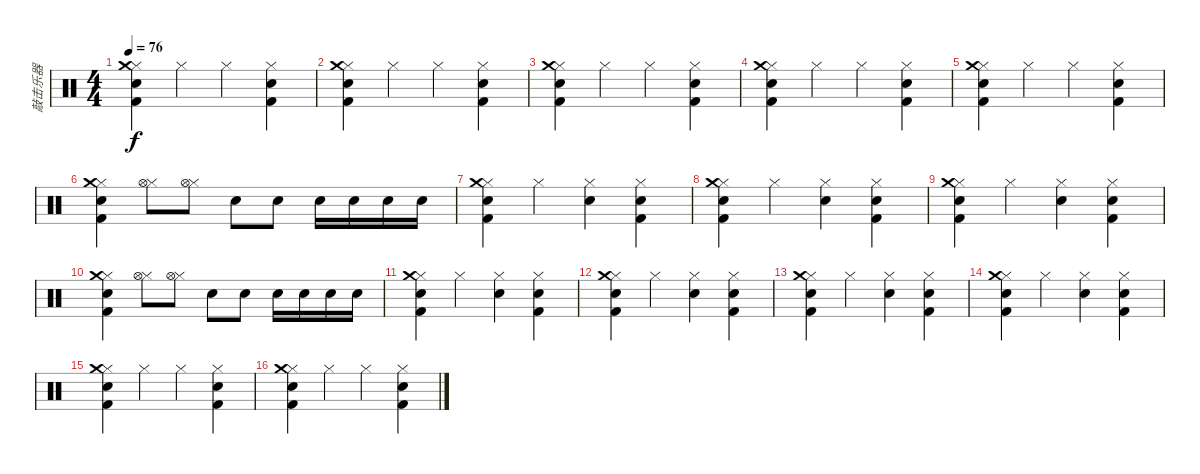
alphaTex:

\track ("敲击乐器" "敲击乐器") {instrument percussion}
\staff {score}
\articulation defaults
\ts (4 4)
\tempo 76
\clef neutral
\ks c
("Hi-Hat (closed)" "Snare (hit) 2" "Kick (hit) 2" "Crash medium (hit)").4{dy f} "Hi-Hat (closed)".4 "Hi-Hat (closed)".4 ("Hi-Hat (closed)" "Snare (hit) 2" "Kick (hit) 2").4 |
("Hi-Hat (closed)" "Snare (hit) 2" "Kick (hit) 2" "Crash medium (hit)").4 "Hi-Hat (closed)".4 "Hi-Hat (closed)".4 ("Hi-Hat (closed)" "Snare (hit) 2" "Kick (hit) 2").4 |
("Hi-Hat (closed)" "Snare (hit) 2" "Kick (hit) 2" "Crash medium (hit)").4 "Hi-Hat (closed)".4 "Hi-Hat (closed)".4 ("Hi-Hat (closed)" "Snare (hit) 2" "Kick (hit) 2").4 |
("Hi-Hat (closed)" "Snare (hit) 2" "Kick (hit) 2" "Crash medium (hit)").4 "Hi-Hat (closed)".4 "Hi-Hat (closed)".4 ("Hi-Hat (closed)" "Snare (hit) 2" "Kick (hit) 2").4 |
("Hi-Hat (closed)" "Snare (hit) 2" "Kick (hit) 2" "Crash medium (hit)").4 "Hi-Hat (closed)".4 "Hi-Hat (closed)".4 ("Hi-Hat (closed)" "Snare (hit) 2" "Kick (hit) 2").4 |
("Hi-Hat (closed)" "Snare (hit) 2" "Kick (hit) 2" "Crash medium (hit)").4 ("Hi-Hat (closed)" "Hi-Hat (open)").8 ("Hi-Hat (closed)" "Hi-Hat (open)").8 "Electric Snare (hit)".8 "Electric Snare (hit)".8 "Snare (hit) 2".16 "Snare (hit) 2".16 "Snare (hit) 2".16 "Snare (hit) 2".16 |
("Hi-Hat (closed)" "Snare (hit) 2" "Kick (hit) 2" "Crash medium (hit)").4 "Hi-Hat (closed)".4 ("Hi-Hat (closed)" "Hand Clap (hit)").4 ("Hi-Hat (closed)" "Snare (hit) 2" "Kick (hit) 2").4 |
("Hi-Hat (closed)" "Snare (hit) 2" "Kick (hit) 2" "Crash medium (hit)").4 "Hi-Hat (closed)".4 ("Hi-Hat (closed)" "Hand Clap (hit)").4 ("Hi-Hat (closed)" "Snare (hit) 2" "Kick (hit) 2").4 |
("Hi-Hat (closed)" "Snare (hit) 2" "Kick (hit) 2" "Crash medium (hit)").4 "Hi-Hat (closed)".4 ("Hi-Hat (closed)" "Hand Clap (hit)").4 ("Hi-Hat (closed)" "Snare (hit) 2" "Kick (hit) 2").4 |
("Hi-Hat (closed)" "Snare (hit) 2" "Kick (hit) 2" "Crash medium (hit)").4 ("Hi-Hat (closed)" "Hi-Hat (open)").8 ("Hi-Hat (closed)" "Hi-Hat (open)").8 "Electric Snare (hit)".8 "Electric Snare (hit)".8 "Snare (hit) 2".16 "Snare (hit) 2".16 "Snare (hit) 2".16 "Snare (hit) 2".16 |
("Hi-Hat (closed)" "Snare (hit) 2" "Kick (hit) 2" "Crash medium (hit)").4 "Hi-Hat (closed)".4 ("Hi-Hat (closed)" "Hand Clap (hit)").4 ("Hi-Hat (closed)" "Snare (hit) 2" "Kick (hit) 2").4 |
("Hi-Hat (closed)" "Snare (hit) 2" "Kick (hit) 2" "Crash medium (hit)").4 "Hi-Hat (closed)".4 ("Hi-Hat (closed)" "Hand Clap (hit)").4 ("Hi-Hat (closed)" "Snare (hit) 2" "Kick (hit) 2").4 |
("Hi-Hat (closed)" "Snare (hit) 2" "Kick (hit) 2" "Crash medium (hit)").4 "Hi-Hat (closed)".4 ("Hi-Hat (closed)" "Hand Clap (hit)").4 ("Hi-Hat (closed)" "Snare (hit) 2" "Kick (hit) 2").4 |
("Hi-Hat (closed)" "Snare (hit) 2" "Kick (hit) 2" "Crash medium (hit)").4 "Hi-Hat (closed)".4 ("Hi-Hat (closed)" "Hand Clap (hit)").4 ("Hi-Hat (closed)" "Snare (hit) 2" "Kick (hit) 2").4 |
("Hi-Hat (closed)" "Snare (hit) 2" "Kick (hit) 2" "Crash medium (hit)").4 "Hi-Hat (closed)".4 "Hi-Hat (closed)".4 ("Hi-Hat (closed)" "Snare (hit) 2" "Kick (hit) 2").4 |
("Hi-Hat (closed)" "Snare (hit) 2" "Kick (hit) 2" "Crash medium (hit)").4 "Hi-Hat (closed)".4 "Hi-Hat (closed)".4 ("Hi-Hat (closed)" "Snare (hit) 2" "Kick (hit) 2").4
